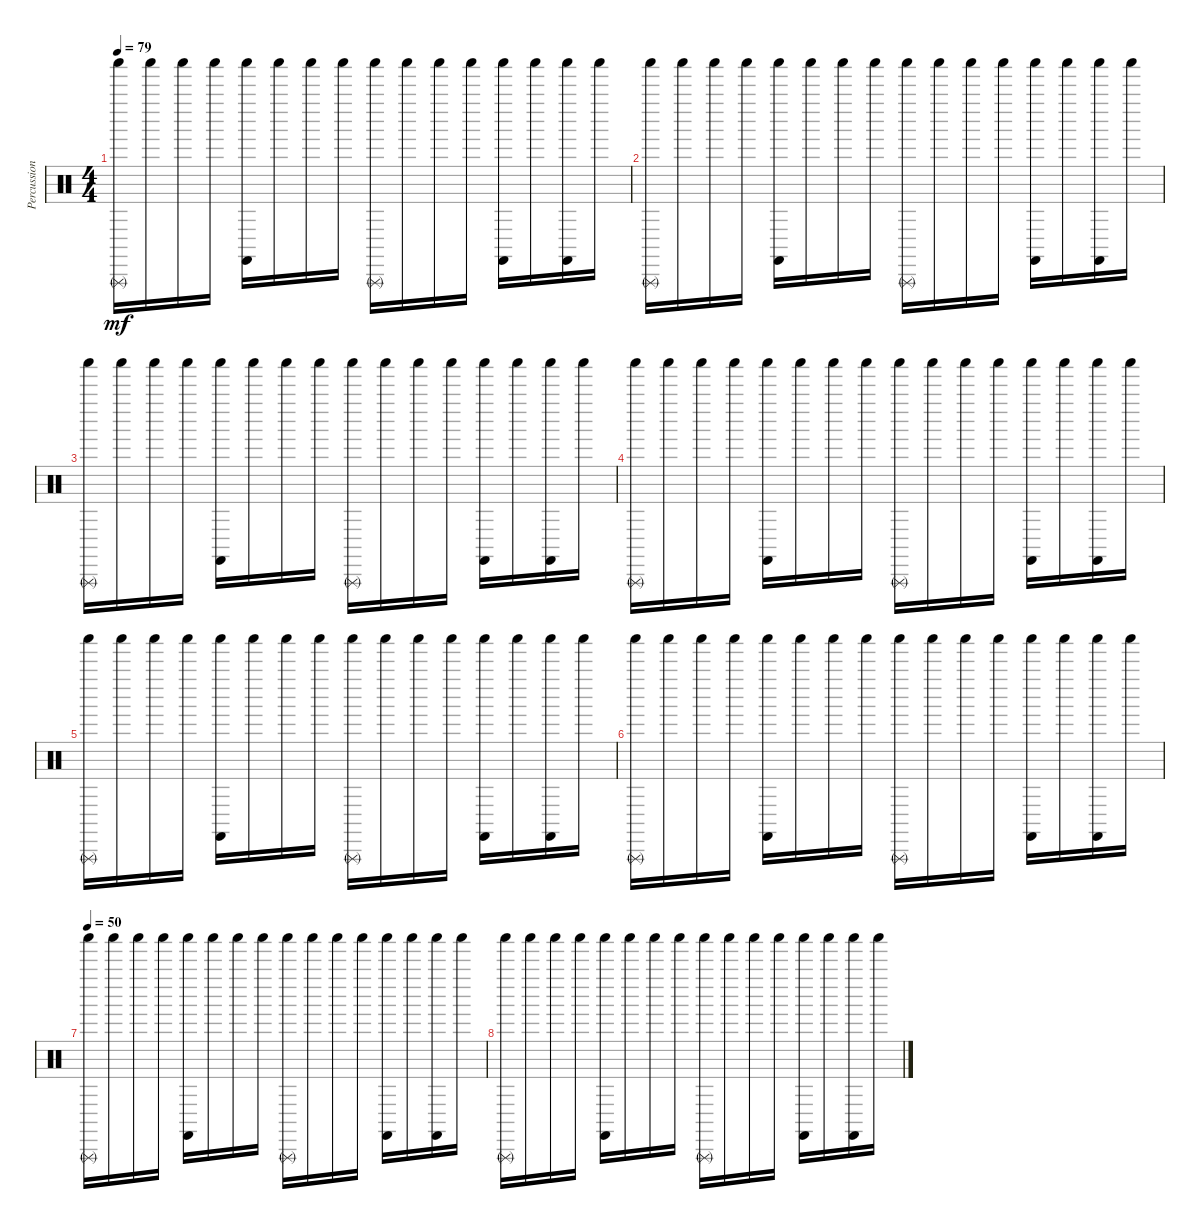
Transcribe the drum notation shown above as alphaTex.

\track ("Percussion" "Percussion") {instrument percussion}
\staff {score}
\articulation defaults
\ts (4 4)
\tempo 79
\clef neutral
\ks c
("Shaker (hit)" "Triangle (rnute)").16{dy mf} "Shaker (hit)".16 "Shaker (hit)".16 "Shaker (hit)".16 ("Shaker (hit)" "Castanets (hit)").16 "Shaker (hit)".16 "Shaker (hit)".16 "Shaker (hit)".16 ("Shaker (hit)" "Triangle (rnute)").16 "Shaker (hit)".16 "Shaker (hit)".16 "Shaker (hit)".16 ("Shaker (hit)" "Castanets (hit)").16 "Shaker (hit)".16 ("Shaker (hit)" "Castanets (hit)").16 "Shaker (hit)".16 |
("Shaker (hit)" "Triangle (rnute)").16 "Shaker (hit)".16 "Shaker (hit)".16 "Shaker (hit)".16 ("Shaker (hit)" "Castanets (hit)").16 "Shaker (hit)".16 "Shaker (hit)".16 "Shaker (hit)".16 ("Shaker (hit)" "Triangle (rnute)").16 "Shaker (hit)".16 "Shaker (hit)".16 "Shaker (hit)".16 ("Shaker (hit)" "Castanets (hit)").16 "Shaker (hit)".16 ("Shaker (hit)" "Castanets (hit)").16 "Shaker (hit)".16 |
("Shaker (hit)" "Triangle (rnute)").16 "Shaker (hit)".16 "Shaker (hit)".16 "Shaker (hit)".16 ("Shaker (hit)" "Castanets (hit)").16 "Shaker (hit)".16 "Shaker (hit)".16 "Shaker (hit)".16 ("Shaker (hit)" "Triangle (rnute)").16 "Shaker (hit)".16 "Shaker (hit)".16 "Shaker (hit)".16 ("Shaker (hit)" "Castanets (hit)").16 "Shaker (hit)".16 ("Shaker (hit)" "Castanets (hit)").16 "Shaker (hit)".16 |
("Shaker (hit)" "Triangle (rnute)").16 "Shaker (hit)".16 "Shaker (hit)".16 "Shaker (hit)".16 ("Shaker (hit)" "Castanets (hit)").16 "Shaker (hit)".16 "Shaker (hit)".16 "Shaker (hit)".16 ("Shaker (hit)" "Triangle (rnute)").16 "Shaker (hit)".16 "Shaker (hit)".16 "Shaker (hit)".16 ("Shaker (hit)" "Castanets (hit)").16 "Shaker (hit)".16 ("Shaker (hit)" "Castanets (hit)").16 "Shaker (hit)".16 |
("Shaker (hit)" "Triangle (rnute)").16 "Shaker (hit)".16 "Shaker (hit)".16 "Shaker (hit)".16 ("Shaker (hit)" "Castanets (hit)").16 "Shaker (hit)".16 "Shaker (hit)".16 "Shaker (hit)".16 ("Shaker (hit)" "Triangle (rnute)").16 "Shaker (hit)".16 "Shaker (hit)".16 "Shaker (hit)".16 ("Shaker (hit)" "Castanets (hit)").16 "Shaker (hit)".16 ("Shaker (hit)" "Castanets (hit)").16 "Shaker (hit)".16 |
("Shaker (hit)" "Triangle (rnute)").16 "Shaker (hit)".16 "Shaker (hit)".16 "Shaker (hit)".16 ("Shaker (hit)" "Castanets (hit)").16 "Shaker (hit)".16 "Shaker (hit)".16 "Shaker (hit)".16 ("Shaker (hit)" "Triangle (rnute)").16 "Shaker (hit)".16 "Shaker (hit)".16 "Shaker (hit)".16 ("Shaker (hit)" "Castanets (hit)").16 "Shaker (hit)".16 ("Shaker (hit)" "Castanets (hit)").16 "Shaker (hit)".16 |
\tempo 50
("Shaker (hit)" "Triangle (rnute)").16 "Shaker (hit)".16 "Shaker (hit)".16 "Shaker (hit)".16 ("Shaker (hit)" "Castanets (hit)").16 "Shaker (hit)".16 "Shaker (hit)".16 "Shaker (hit)".16 ("Shaker (hit)" "Triangle (rnute)").16 "Shaker (hit)".16 "Shaker (hit)".16 "Shaker (hit)".16 ("Shaker (hit)" "Castanets (hit)").16 "Shaker (hit)".16 ("Shaker (hit)" "Castanets (hit)").16 "Shaker (hit)".16 |
("Shaker (hit)" "Triangle (rnute)").16 "Shaker (hit)".16 "Shaker (hit)".16 "Shaker (hit)".16 ("Shaker (hit)" "Castanets (hit)").16 "Shaker (hit)".16 "Shaker (hit)".16 "Shaker (hit)".16 ("Shaker (hit)" "Triangle (rnute)").16 "Shaker (hit)".16 "Shaker (hit)".16 "Shaker (hit)".16 ("Shaker (hit)" "Castanets (hit)").16 "Shaker (hit)".16 ("Shaker (hit)" "Castanets (hit)").16 "Shaker (hit)".16
